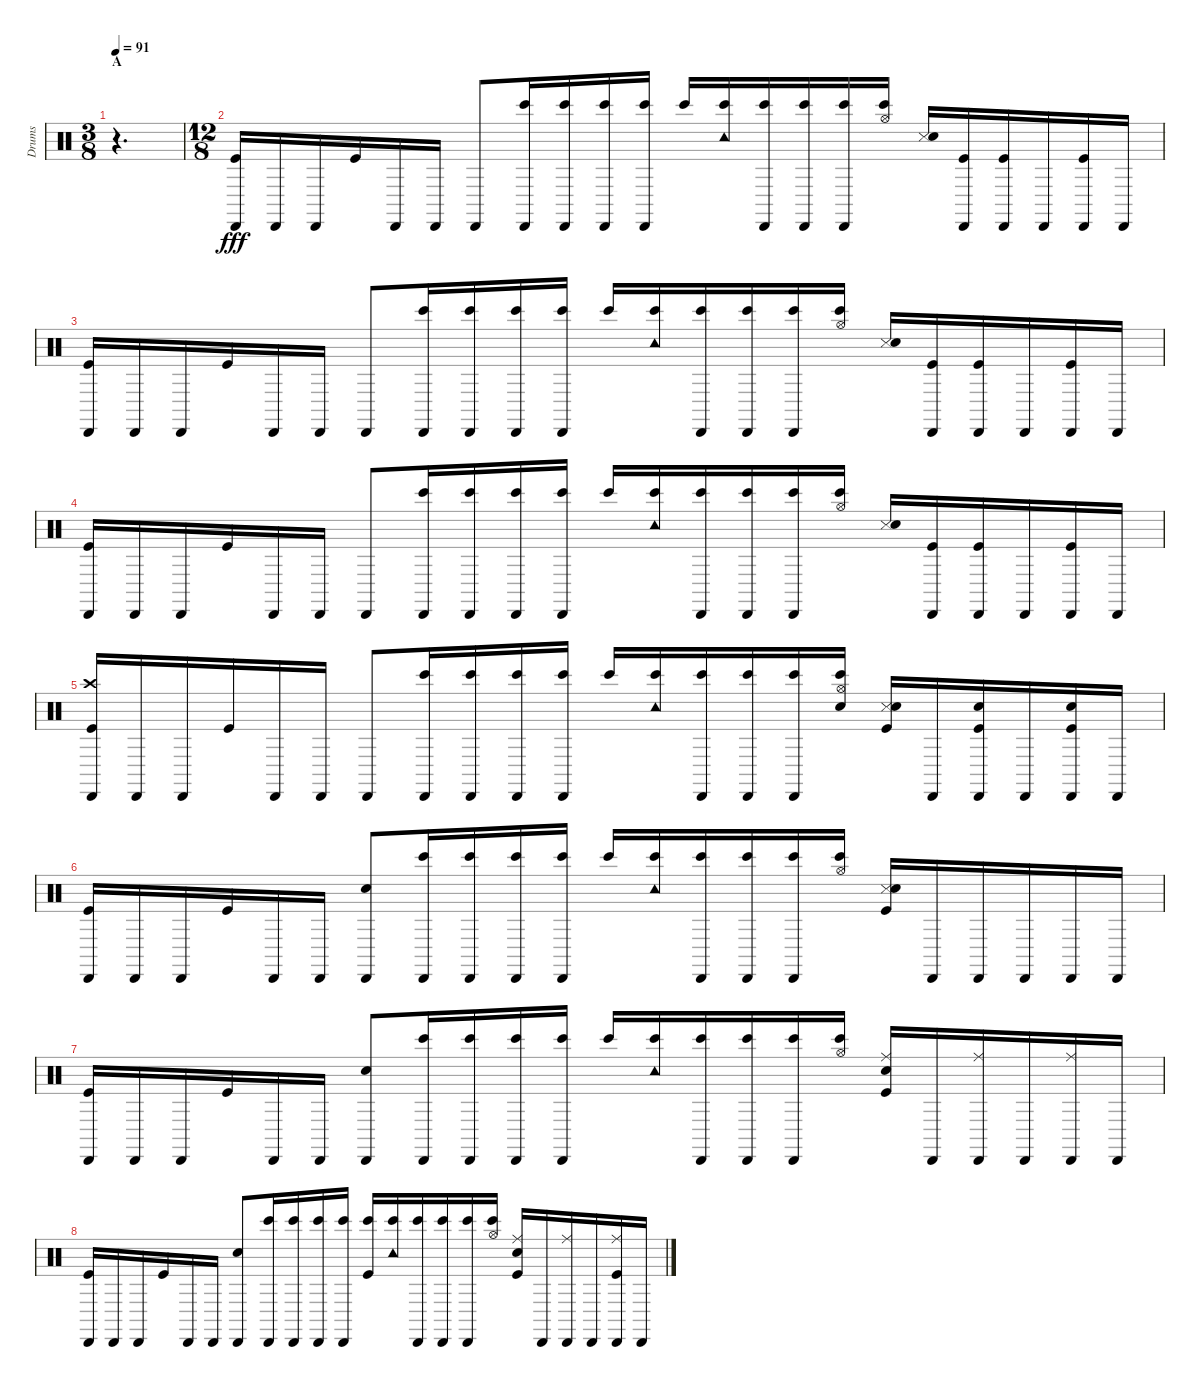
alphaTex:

\track ("Drums" "Drums") {instrument percussion}
\staff {score}
\articulation defaults
\ts (3 8)
\section ("" "A")
\tempo 91
\clef neutral
\ks c
r.4{d dy fff} |
\ts (12 8)
("Cabasa (hit)" "Kick (hit)").16 "Cabasa (hit)".16 "Cabasa (hit)".16 "Kick (hit)".16 "Cabasa (hit)".16 "Cabasa (hit)".16 "Cabasa (hit)".8 ("Cabasa (hit)" "Bongo High (hit)").16 ("Cabasa (hit)" "Bongo High (hit)").16 ("Cabasa (hit)" "Bongo High (hit)").16 ("Cabasa (hit)" "Bongo High (hit)").16 "Bongo High (hit)".16 ("Tambourine (hit)" "Bongo High (hit)").16 ("Cabasa (hit)" "Bongo High (hit)").16 ("Cabasa (hit)" "Bongo High (hit)").16 ("Cabasa (hit)" "Bongo High (hit)").16 ("Hi-Hat (open)" "Bongo High (hit)").16 ("Snare (side stick) 3" "Electric Snare (hit)").16 ("Cabasa (hit)" "Kick (hit)").16 ("Cabasa (hit)" "Kick (hit)").16 "Cabasa (hit)".16 ("Cabasa (hit)" "Kick (hit)").16 "Cabasa (hit)".16 |
("Cabasa (hit)" "Kick (hit)").16 "Cabasa (hit)".16 "Cabasa (hit)".16 "Kick (hit)".16 "Cabasa (hit)".16 "Cabasa (hit)".16 "Cabasa (hit)".8 ("Cabasa (hit)" "Bongo High (hit)").16 ("Cabasa (hit)" "Bongo High (hit)").16 ("Cabasa (hit)" "Bongo High (hit)").16 ("Cabasa (hit)" "Bongo High (hit)").16 "Bongo High (hit)".16 ("Tambourine (hit)" "Bongo High (hit)").16 ("Cabasa (hit)" "Bongo High (hit)").16 ("Cabasa (hit)" "Bongo High (hit)").16 ("Cabasa (hit)" "Bongo High (hit)").16 ("Hi-Hat (open)" "Bongo High (hit)").16 ("Snare (side stick) 3" "Electric Snare (hit)").16 ("Cabasa (hit)" "Kick (hit)").16 ("Cabasa (hit)" "Kick (hit)").16 "Cabasa (hit)".16 ("Cabasa (hit)" "Kick (hit)").16 "Cabasa (hit)".16 |
("Cabasa (hit)" "Kick (hit)").16 "Cabasa (hit)".16 "Cabasa (hit)".16 "Kick (hit)".16 "Cabasa (hit)".16 "Cabasa (hit)".16 "Cabasa (hit)".8 ("Cabasa (hit)" "Bongo High (hit)").16 ("Cabasa (hit)" "Bongo High (hit)").16 ("Cabasa (hit)" "Bongo High (hit)").16 ("Cabasa (hit)" "Bongo High (hit)").16 "Bongo High (hit)".16 ("Tambourine (hit)" "Bongo High (hit)").16 ("Cabasa (hit)" "Bongo High (hit)").16 ("Cabasa (hit)" "Bongo High (hit)").16 ("Cabasa (hit)" "Bongo High (hit)").16 ("Hi-Hat (open)" "Bongo High (hit)").16 ("Snare (side stick) 3" "Electric Snare (hit)").16 ("Cabasa (hit)" "Kick (hit)").16 ("Cabasa (hit)" "Kick (hit)").16 "Cabasa (hit)".16 ("Cabasa (hit)" "Kick (hit)").16 "Cabasa (hit)".16 |
("Cabasa (hit)" "Crash high (hit)" "Kick (hit)").16 "Cabasa (hit)".16 "Cabasa (hit)".16 "Kick (hit)".16 "Cabasa (hit)".16 "Cabasa (hit)".16 "Cabasa (hit)".8 ("Cabasa (hit)" "Bongo High (hit)").16 ("Cabasa (hit)" "Bongo High (hit)").16 ("Cabasa (hit)" "Bongo High (hit)").16 ("Cabasa (hit)" "Bongo High (hit)").16 "Bongo High (hit)".16 ("Tambourine (hit)" "Bongo High (hit)").16 ("Cabasa (hit)" "Bongo High (hit)").16 ("Cabasa (hit)" "Bongo High (hit)").16 ("Cabasa (hit)" "Bongo High (hit)").16 ("Hi-Hat (open)" "Bongo High (hit)" "Snare (hit) 2").16 ("Snare (side stick) 3" "Snare (hit) 2" "Kick (hit)").16 "Cabasa (hit)".16 ("Cabasa (hit)" "Snare (hit) 2" "Kick (hit)").16 "Cabasa (hit)".16 ("Cabasa (hit)" "Snare (hit) 2" "Kick (hit)").16 "Cabasa (hit)".16 |
("Cabasa (hit)" "Kick (hit)").16 "Cabasa (hit)".16 "Cabasa (hit)".16 "Kick (hit)".16 "Cabasa (hit)".16 "Cabasa (hit)".16 ("Cabasa (hit)" "Snare (hit) 2").8 ("Cabasa (hit)" "Bongo High (hit)").16 ("Cabasa (hit)" "Bongo High (hit)").16 ("Cabasa (hit)" "Bongo High (hit)").16 ("Cabasa (hit)" "Bongo High (hit)").16 "Bongo High (hit)".16 ("Tambourine (hit)" "Bongo High (hit)").16 ("Cabasa (hit)" "Bongo High (hit)").16 ("Cabasa (hit)" "Bongo High (hit)").16 ("Cabasa (hit)" "Bongo High (hit)").16 ("Hi-Hat (open)" "Bongo High (hit)").16 ("Snare (side stick) 3" "Electric Snare (hit)" "Kick (hit)").16 "Cabasa (hit)".16 "Cabasa (hit)".16 "Cabasa (hit)".16 "Cabasa (hit)".16 "Cabasa (hit)".16 |
("Cabasa (hit)" "Kick (hit)").16 "Cabasa (hit)".16 "Cabasa (hit)".16 "Kick (hit)".16 "Cabasa (hit)".16 "Cabasa (hit)".16 ("Cabasa (hit)" "Snare (hit) 2").8 ("Cabasa (hit)" "Bongo High (hit)").16 ("Cabasa (hit)" "Bongo High (hit)").16 ("Cabasa (hit)" "Bongo High (hit)").16 ("Cabasa (hit)" "Bongo High (hit)").16 "Bongo High (hit)".16 ("Tambourine (hit)" "Bongo High (hit)").16 ("Cabasa (hit)" "Bongo High (hit)").16 ("Cabasa (hit)" "Bongo High (hit)").16 ("Cabasa (hit)" "Bongo High (hit)").16 ("Hi-Hat (open)" "Bongo High (hit)").16 ("Ride (middle)" "Electric Snare (hit)" "Kick (hit)").16 "Cabasa (hit)".16 ("Cabasa (hit)" "Ride (middle)").16 "Cabasa (hit)".16 ("Cabasa (hit)" "Ride (middle)").16 "Cabasa (hit)".16 |
("Cabasa (hit)" "Kick (hit)").16 "Cabasa (hit)".16 "Cabasa (hit)".16 "Kick (hit)".16 "Cabasa (hit)".16 "Cabasa (hit)".16 ("Cabasa (hit)" "Snare (hit) 2").8 ("Cabasa (hit)" "Bongo High (hit)").16 ("Cabasa (hit)" "Bongo High (hit)").16 ("Cabasa (hit)" "Bongo High (hit)").16 ("Cabasa (hit)" "Bongo High (hit)").16 ("Bongo High (hit)" "Kick (hit)").16 ("Tambourine (hit)" "Bongo High (hit)").16 ("Cabasa (hit)" "Bongo High (hit)").16 ("Cabasa (hit)" "Bongo High (hit)").16 ("Cabasa (hit)" "Bongo High (hit)").16 ("Hi-Hat (open)" "Bongo High (hit)").16 ("Ride (middle)" "Electric Snare (hit)" "Kick (hit)").16 "Cabasa (hit)".16 ("Cabasa (hit)" "Ride (middle)").16 "Cabasa (hit)".16 ("Cabasa (hit)" "Ride (middle)" "Kick (hit)").16 "Cabasa (hit)".16
